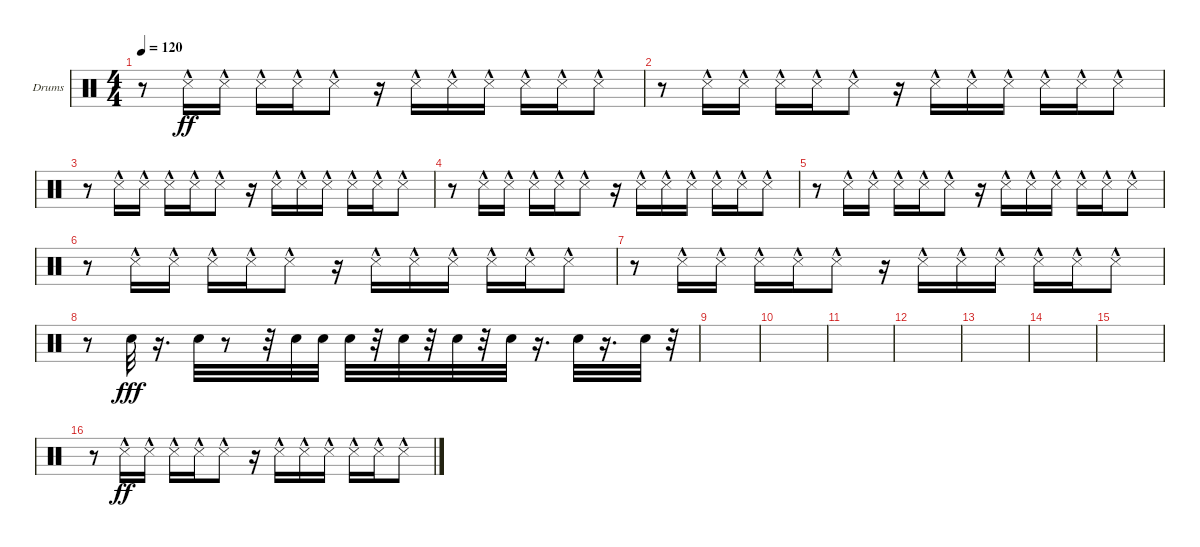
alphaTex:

\defaultSystemsLayout 4
\bracketExtendMode groupsimilarinstruments
\firstSystemTrackNameOrientation horizontal
\otherSystemsTrackNameOrientation horizontal
\track ("Drumkit" "Drums") {instrument percussion}
\staff {score}
\articulation defaults
\ts (4 4)
\tempo 120
\clef neutral
\scale
0.333333
\ks c
r.8{dy ff} "Snare (side stick) 3"{hac}.16 "Snare (side stick) 3"{hac}.16 "Snare (side stick) 3"{hac}.16 "Snare (side stick) 3"{hac}.16 "Snare (side stick) 3"{hac}.8 r.16 "Snare (side stick) 3"{hac}.16 "Snare (side stick) 3"{hac}.16 "Snare (side stick) 3"{hac}.16 "Snare (side stick) 3"{hac}.16 "Snare (side stick) 3"{hac}.16 "Snare (side stick) 3"{hac}.8 |
\scale
0.333333 r.8 "Snare (side stick) 3"{hac}.16 "Snare (side stick) 3"{hac}.16 "Snare (side stick) 3"{hac}.16 "Snare (side stick) 3"{hac}.16 "Snare (side stick) 3"{hac}.8 r.16 "Snare (side stick) 3"{hac}.16 "Snare (side stick) 3"{hac}.16 "Snare (side stick) 3"{hac}.16 "Snare (side stick) 3"{hac}.16 "Snare (side stick) 3"{hac}.16 "Snare (side stick) 3"{hac}.8 |
\scale
0.333333 r.8 "Snare (side stick) 3"{hac}.16 "Snare (side stick) 3"{hac}.16 "Snare (side stick) 3"{hac}.16 "Snare (side stick) 3"{hac}.16 "Snare (side stick) 3"{hac}.8 r.16 "Snare (side stick) 3"{hac}.16 "Snare (side stick) 3"{hac}.16 "Snare (side stick) 3"{hac}.16 "Snare (side stick) 3"{hac}.16 "Snare (side stick) 3"{hac}.16 "Snare (side stick) 3"{hac}.8 |
\scale
0.333333 r.8 "Snare (side stick) 3"{hac}.16 "Snare (side stick) 3"{hac}.16 "Snare (side stick) 3"{hac}.16 "Snare (side stick) 3"{hac}.16 "Snare (side stick) 3"{hac}.8 r.16 "Snare (side stick) 3"{hac}.16 "Snare (side stick) 3"{hac}.16 "Snare (side stick) 3"{hac}.16 "Snare (side stick) 3"{hac}.16 "Snare (side stick) 3"{hac}.16 "Snare (side stick) 3"{hac}.8 |
\scale
0.333333 r.8 "Snare (side stick) 3"{hac}.16 "Snare (side stick) 3"{hac}.16 "Snare (side stick) 3"{hac}.16 "Snare (side stick) 3"{hac}.16 "Snare (side stick) 3"{hac}.8 r.16 "Snare (side stick) 3"{hac}.16 "Snare (side stick) 3"{hac}.16 "Snare (side stick) 3"{hac}.16 "Snare (side stick) 3"{hac}.16 "Snare (side stick) 3"{hac}.16 "Snare (side stick) 3"{hac}.8 |
\scale
0.333333 r.8 "Snare (side stick) 3"{hac}.16 "Snare (side stick) 3"{hac}.16 "Snare (side stick) 3"{hac}.16 "Snare (side stick) 3"{hac}.16 "Snare (side stick) 3"{hac}.8 r.16 "Snare (side stick) 3"{hac}.16 "Snare (side stick) 3"{hac}.16 "Snare (side stick) 3"{hac}.16 "Snare (side stick) 3"{hac}.16 "Snare (side stick) 3"{hac}.16 "Snare (side stick) 3"{hac}.8 |
\scale
0.333333 r.8 "Snare (side stick) 3"{hac}.16 "Snare (side stick) 3"{hac}.16 "Snare (side stick) 3"{hac}.16 "Snare (side stick) 3"{hac}.16 "Snare (side stick) 3"{hac}.8 r.16 "Snare (side stick) 3"{hac}.16 "Snare (side stick) 3"{hac}.16 "Snare (side stick) 3"{hac}.16 "Snare (side stick) 3"{hac}.16 "Snare (side stick) 3"{hac}.16 "Snare (side stick) 3"{hac}.8 |
\scale
0.333333 r.8 "Snare (hit) 2".32{dy fff} r.16{d} "Snare (hit) 2".32 r.8 r.32 "Snare (hit) 2".32 "Snare (hit) 2".32 "Snare (hit) 2".32 r.32 "Snare (hit) 2".32 r.32 "Snare (hit) 2".32 r.32 "Snare (hit) 2".32 r.16{d} "Snare (hit) 2".32 r.16{d} "Snare (hit) 2".32 r.32 |
\scale
0.333333 |
\scale
0.333333 |
\scale
0.333333 |
\scale
0.333333 |
\scale
0.333333 |
\scale
0.333333 |
\scale
0.333333 |
\scale
0.333333 r.8 "Snare (side stick) 3"{hac}.16{dy ff} "Snare (side stick) 3"{hac}.16 "Snare (side stick) 3"{hac}.16 "Snare (side stick) 3"{hac}.16 "Snare (side stick) 3"{hac}.8 r.16 "Snare (side stick) 3"{hac}.16 "Snare (side stick) 3"{hac}.16 "Snare (side stick) 3"{hac}.16 "Snare (side stick) 3"{hac}.16 "Snare (side stick) 3"{hac}.16 "Snare (side stick) 3"{hac}.8
